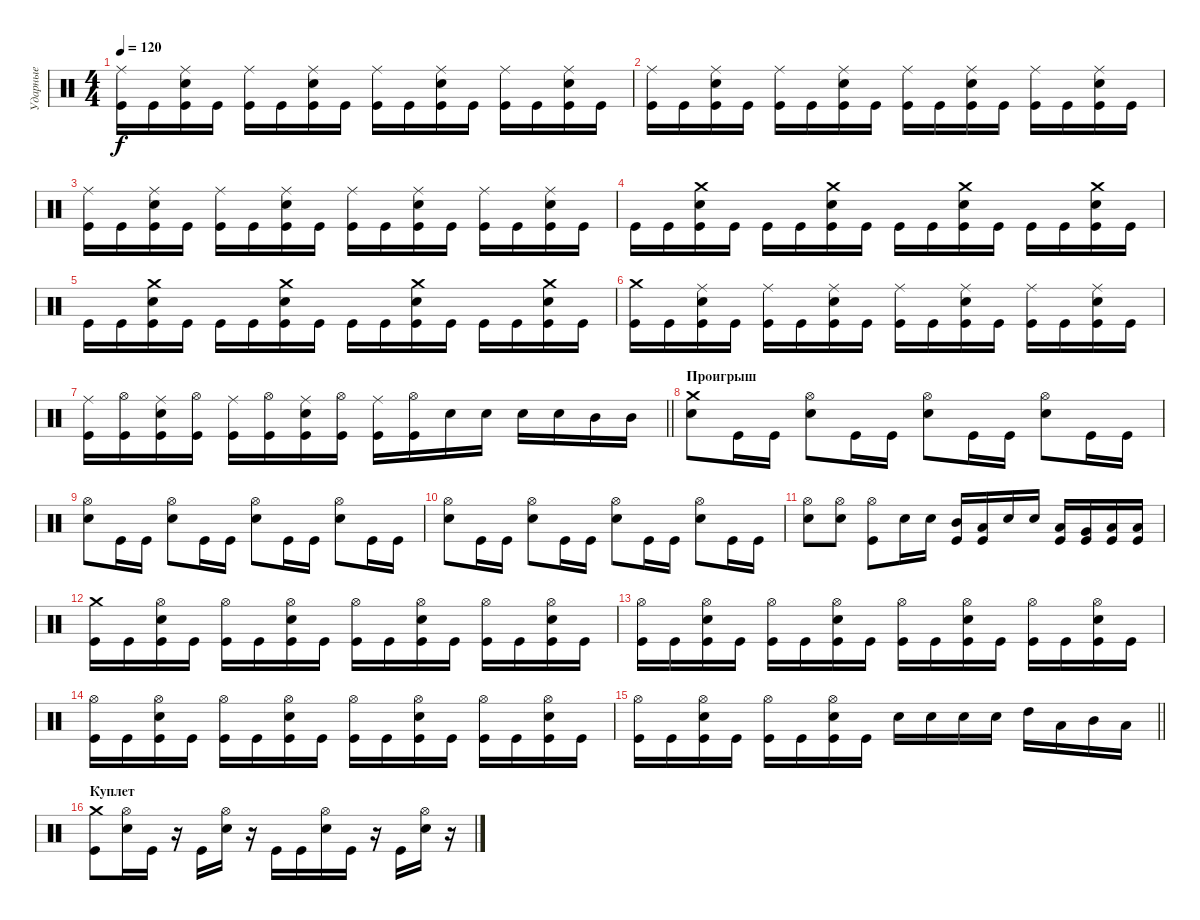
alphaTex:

\track ("Ударные" "Ударные") {instrument percussion}
\staff {score}
\articulation defaults
\ts (4 4)
\tempo 120
\clef neutral
\ks c
("Kick (hit)" "Ride (middle)").16{dy f} "Kick (hit)".16 ("Kick (hit)" "Snare (hit) 2" "Ride (middle)").16 "Kick (hit)".16 ("Kick (hit)" "Ride (middle)").16 "Kick (hit)".16 ("Kick (hit)" "Snare (hit) 2" "Ride (middle)").16 "Kick (hit)".16 ("Kick (hit)" "Ride (middle)").16 "Kick (hit)".16 ("Kick (hit)" "Snare (hit) 2" "Ride (middle)").16 "Kick (hit)".16 ("Kick (hit)" "Ride (middle)").16 "Kick (hit)".16 ("Kick (hit)" "Snare (hit) 2" "Ride (middle)").16 "Kick (hit)".16 |
("Kick (hit)" "Ride (middle)").16 "Kick (hit)".16 ("Kick (hit)" "Snare (hit) 2" "Ride (middle)").16 "Kick (hit)".16 ("Kick (hit)" "Ride (middle)").16 "Kick (hit)".16 ("Kick (hit)" "Snare (hit) 2" "Ride (middle)").16 "Kick (hit)".16 ("Kick (hit)" "Ride (middle)").16 "Kick (hit)".16 ("Kick (hit)" "Snare (hit) 2" "Ride (middle)").16 "Kick (hit)".16 ("Kick (hit)" "Ride (middle)").16 "Kick (hit)".16 ("Kick (hit)" "Snare (hit) 2" "Ride (middle)").16 "Kick (hit)".16 |
("Kick (hit)" "Ride (middle)").16 "Kick (hit)".16 ("Kick (hit)" "Snare (hit) 2" "Ride (middle)").16 "Kick (hit)".16 ("Kick (hit)" "Ride (middle)").16 "Kick (hit)".16 ("Kick (hit)" "Snare (hit) 2" "Ride (middle)").16 "Kick (hit)".16 ("Kick (hit)" "Ride (middle)").16 "Kick (hit)".16 ("Kick (hit)" "Snare (hit) 2" "Ride (middle)").16 "Kick (hit)".16 ("Kick (hit)" "Ride (middle)").16 "Kick (hit)".16 ("Kick (hit)" "Snare (hit) 2" "Ride (middle)").16 "Kick (hit)".16 |
"Kick (hit)".16 "Kick (hit)".16 ("Kick (hit)" "Snare (hit) 2" "Crash medium (hit)").16 "Kick (hit)".16 "Kick (hit)".16 "Kick (hit)".16 ("Kick (hit)" "Snare (hit) 2" "Crash medium (hit)").16 "Kick (hit)".16 "Kick (hit)".16 "Kick (hit)".16 ("Kick (hit)" "Snare (hit) 2" "Crash medium (hit)").16 "Kick (hit)".16 "Kick (hit)".16 "Kick (hit)".16 ("Kick (hit)" "Snare (hit) 2" "Crash medium (hit)").16 "Kick (hit)".16 |
"Kick (hit)".16 "Kick (hit)".16 ("Kick (hit)" "Snare (hit) 2" "Crash medium (hit)").16 "Kick (hit)".16 "Kick (hit)".16 "Kick (hit)".16 ("Kick (hit)" "Snare (hit) 2" "Crash medium (hit)").16 "Kick (hit)".16 "Kick (hit)".16 "Kick (hit)".16 ("Kick (hit)" "Snare (hit) 2" "Crash medium (hit)").16 "Kick (hit)".16 "Kick (hit)".16 "Kick (hit)".16 ("Kick (hit)" "Snare (hit) 2" "Crash medium (hit)").16 "Kick (hit)".16 |
("Kick (hit)" "Crash medium (hit)").16 "Kick (hit)".16 ("Kick (hit)" "Snare (hit) 2" "Ride (middle)").16 "Kick (hit)".16 ("Kick (hit)" "Ride (middle)").16 "Kick (hit)".16 ("Kick (hit)" "Snare (hit) 2" "Ride (middle)").16 "Kick (hit)".16 ("Kick (hit)" "Ride (middle)").16 "Kick (hit)".16 ("Kick (hit)" "Snare (hit) 2" "Ride (middle)").16 "Kick (hit)".16 ("Kick (hit)" "Ride (middle)").16 "Kick (hit)".16 ("Kick (hit)" "Snare (hit) 2" "Ride (middle)").16 "Kick (hit)".16 |
\barLineRight lightlight
("Kick (hit)" "Ride (middle)").16 ("Kick (hit)" "Hi-Hat (open)").16 ("Kick (hit)" "Snare (hit) 2" "Ride (middle)").16 ("Kick (hit)" "Hi-Hat (open)").16 ("Kick (hit)" "Ride (middle)").16 ("Kick (hit)" "Hi-Hat (open)").16 ("Kick (hit)" "Snare (hit) 2" "Ride (middle)").16 ("Kick (hit)" "Hi-Hat (open)").16 ("Kick (hit)" "Ride (middle)").16 ("Kick (hit)" "Hi-Hat (open)").16 "Snare (hit) 2".16 "Snare (hit) 2".16 "Snare (hit) 2".16 "Snare (hit) 2".16 "Mid Tom (hit)".16 "Mid Tom (hit)".16 |
\section ("" "Проигрыш")
("Snare (hit) 2" "Crash medium (hit)").8 "Kick (hit)".16 "Kick (hit)".16 ("Snare (hit) 2" "Hi-Hat (open)").8 "Kick (hit)".16 "Kick (hit)".16 ("Snare (hit) 2" "Hi-Hat (open)").8 "Kick (hit)".16 "Kick (hit)".16 ("Snare (hit) 2" "Hi-Hat (open)").8 "Kick (hit)".16 "Kick (hit)".16 |
("Snare (hit) 2" "Hi-Hat (open)").8 "Kick (hit)".16 "Kick (hit)".16 ("Snare (hit) 2" "Hi-Hat (open)").8 "Kick (hit)".16 "Kick (hit)".16 ("Snare (hit) 2" "Hi-Hat (open)").8 "Kick (hit)".16 "Kick (hit)".16 ("Snare (hit) 2" "Hi-Hat (open)").8 "Kick (hit)".16 "Kick (hit)".16 |
("Snare (hit) 2" "Hi-Hat (open)").8 "Kick (hit)".16 "Kick (hit)".16 ("Snare (hit) 2" "Hi-Hat (open)").8 "Kick (hit)".16 "Kick (hit)".16 ("Snare (hit) 2" "Hi-Hat (open)").8 "Kick (hit)".16 "Kick (hit)".16 ("Snare (hit) 2" "Hi-Hat (open)").8 "Kick (hit)".16 "Kick (hit)".16 |
("Snare (hit) 2" "Hi-Hat (open)").8 ("Snare (hit) 2" "Hi-Hat (open)").8 ("Kick (hit)" "Hi-Hat (open)").8 "Snare (hit) 2".16 "Snare (hit) 2".16 ("Kick (hit)" "Mid Tom (hit)").16 ("Kick (hit)" "Low Tom (hit)").16 "Snare (hit) 2".16 "Snare (hit) 2".16 ("Kick (hit)" "Low Tom (hit)").16 ("Kick (hit)" "Very Low Tom (hit)").16 ("Kick (hit)" "Low Tom (hit)").16 ("Kick (hit)" "Low Floor Tom (hit)").16 |
("Kick (hit)" "Crash medium (hit)").16 "Kick (hit)".16 ("Kick (hit)" "Snare (hit) 2" "Hi-Hat (open)").16 "Kick (hit)".16 ("Kick (hit)" "Hi-Hat (open)").16 "Kick (hit)".16 ("Kick (hit)" "Snare (hit) 2" "Hi-Hat (open)").16 "Kick (hit)".16 ("Kick (hit)" "Hi-Hat (open)").16 "Kick (hit)".16 ("Kick (hit)" "Snare (hit) 2" "Hi-Hat (open)").16 "Kick (hit)".16 ("Kick (hit)" "Hi-Hat (open)").16 "Kick (hit)".16 ("Kick (hit)" "Snare (hit) 2" "Hi-Hat (open)").16 "Kick (hit)".16 |
("Kick (hit)" "Hi-Hat (open)").16 "Kick (hit)".16 ("Kick (hit)" "Snare (hit) 2" "Hi-Hat (open)").16 "Kick (hit)".16 ("Kick (hit)" "Hi-Hat (open)").16 "Kick (hit)".16 ("Kick (hit)" "Snare (hit) 2" "Hi-Hat (open)").16 "Kick (hit)".16 ("Kick (hit)" "Hi-Hat (open)").16 "Kick (hit)".16 ("Kick (hit)" "Snare (hit) 2" "Hi-Hat (open)").16 "Kick (hit)".16 ("Kick (hit)" "Hi-Hat (open)").16 "Kick (hit)".16 ("Kick (hit)" "Snare (hit) 2" "Hi-Hat (open)").16 "Kick (hit)".16 |
("Kick (hit)" "Hi-Hat (open)").16 "Kick (hit)".16 ("Kick (hit)" "Snare (hit) 2" "Hi-Hat (open)").16 "Kick (hit)".16 ("Kick (hit)" "Hi-Hat (open)").16 "Kick (hit)".16 ("Kick (hit)" "Snare (hit) 2" "Hi-Hat (open)").16 "Kick (hit)".16 ("Kick (hit)" "Hi-Hat (open)").16 "Kick (hit)".16 ("Kick (hit)" "Snare (hit) 2" "Hi-Hat (open)").16 "Kick (hit)".16 ("Kick (hit)" "Hi-Hat (open)").16 "Kick (hit)".16 ("Kick (hit)" "Snare (hit) 2" "Hi-Hat (open)").16 "Kick (hit)".16 |
\barLineRight lightlight
("Kick (hit)" "Hi-Hat (open)").16 "Kick (hit)".16 ("Kick (hit)" "Snare (hit) 2" "Hi-Hat (open)").16 "Kick (hit)".16 ("Kick (hit)" "Hi-Hat (open)").16 "Kick (hit)".16 ("Kick (hit)" "Snare (hit) 2" "Hi-Hat (open)").16 "Kick (hit)".16 "Snare (hit) 2".16 "Snare (hit) 2".16 "Snare (hit) 2".16 "Snare (hit) 2".16 "High Tom (hit)".16 "Low Tom (hit)".16 "Mid Tom (hit)".16 "Low Tom (hit)".16 |
\section ("" "Куплет")
("Kick (hit)" "Crash medium (hit)").8 ("Snare (hit) 2" "Hi-Hat (open)").16 "Kick (hit)".16 r.16 "Kick (hit)".16 ("Snare (hit) 2" "Hi-Hat (open)").16 r.16 "Kick (hit)".16 "Kick (hit)".16 ("Snare (hit) 2" "Hi-Hat (open)").16 "Kick (hit)".16 r.16 "Kick (hit)".16 ("Snare (hit) 2" "Hi-Hat (open)").16 r.16
